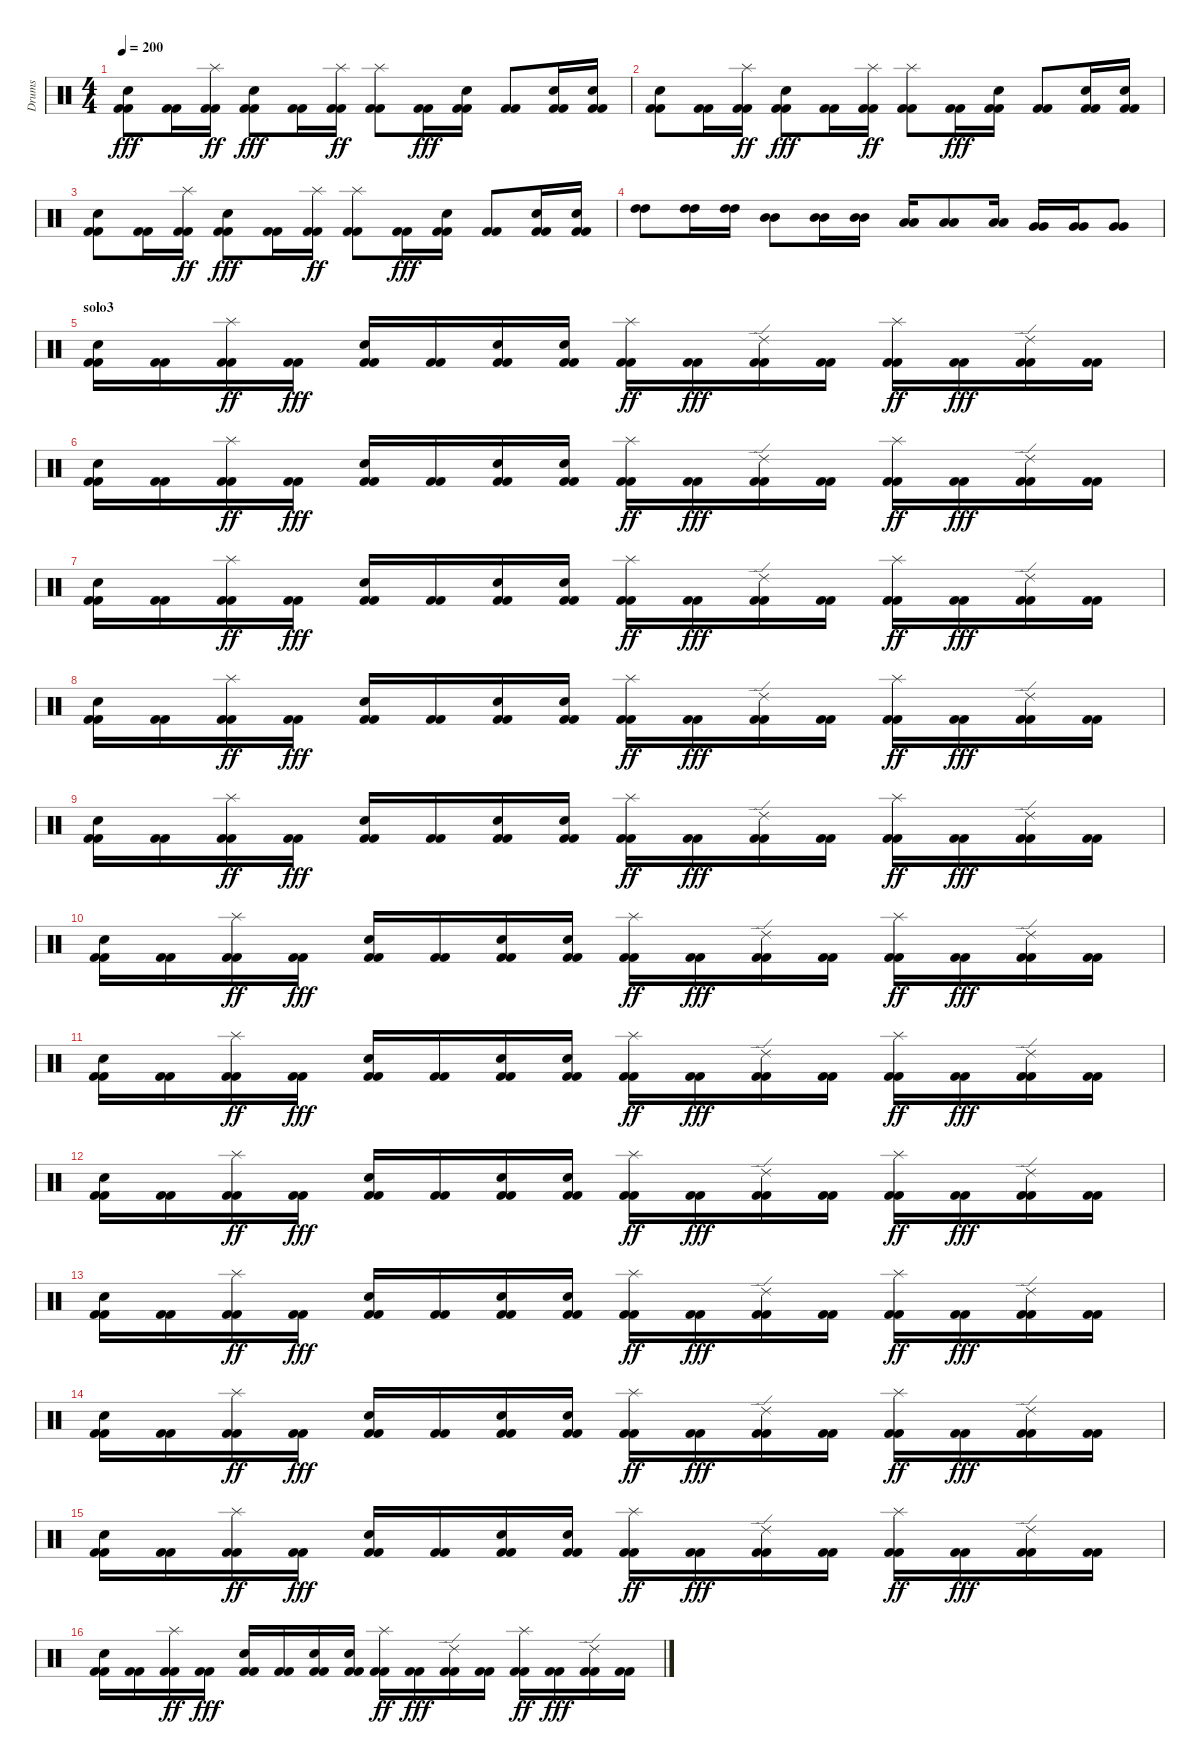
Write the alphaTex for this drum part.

\track ("Drums" "Drums") {instrument percussion}
\staff {score}
\articulation defaults
\ts (4 4)
\tempo 200
\clef neutral
\ks c
("Kick (hit) 2" "Kick (hit) 2" "Electric Snare (hit)").8{dy fff} ("Kick (hit) 2" "Kick (hit) 2").16 ("Kick (hit) 2" "Kick (hit) 2" "Splash (hit)").16{dy ff} ("Kick (hit) 2" "Kick (hit) 2" "Electric Snare (hit)").8{dy fff} ("Kick (hit) 2" "Kick (hit) 2").16 ("Kick (hit) 2" "Kick (hit) 2" "Splash (hit)").16{dy ff} ("Kick (hit) 2" "Kick (hit) 2" "Splash (hit)").8 ("Kick (hit) 2" "Kick (hit) 2").16{dy fff} ("Kick (hit) 2" "Kick (hit) 2" "Electric Snare (hit)").16 ("Kick (hit) 2" "Kick (hit) 2").8 ("Kick (hit) 2" "Kick (hit) 2" "Electric Snare (hit)").16 ("Kick (hit) 2" "Kick (hit) 2" "Electric Snare (hit)").16 |
("Kick (hit) 2" "Kick (hit) 2" "Electric Snare (hit)").8 ("Kick (hit) 2" "Kick (hit) 2").16 ("Kick (hit) 2" "Kick (hit) 2" "Splash (hit)").16{dy ff} ("Kick (hit) 2" "Kick (hit) 2" "Electric Snare (hit)").8{dy fff} ("Kick (hit) 2" "Kick (hit) 2").16 ("Kick (hit) 2" "Kick (hit) 2" "Splash (hit)").16{dy ff} ("Kick (hit) 2" "Kick (hit) 2" "Splash (hit)").8 ("Kick (hit) 2" "Kick (hit) 2").16{dy fff} ("Kick (hit) 2" "Kick (hit) 2" "Electric Snare (hit)").16 ("Kick (hit) 2" "Kick (hit) 2").8 ("Kick (hit) 2" "Kick (hit) 2" "Electric Snare (hit)").16 ("Kick (hit) 2" "Kick (hit) 2" "Electric Snare (hit)").16 |
("Kick (hit) 2" "Kick (hit) 2" "Electric Snare (hit)").8 ("Kick (hit) 2" "Kick (hit) 2").16 ("Kick (hit) 2" "Kick (hit) 2" "Splash (hit)").16{dy ff} ("Kick (hit) 2" "Kick (hit) 2" "Electric Snare (hit)").8{dy fff} ("Kick (hit) 2" "Kick (hit) 2").16 ("Kick (hit) 2" "Kick (hit) 2" "Splash (hit)").16{dy ff} ("Kick (hit) 2" "Kick (hit) 2" "Splash (hit)").8 ("Kick (hit) 2" "Kick (hit) 2").16{dy fff} ("Kick (hit) 2" "Kick (hit) 2" "Electric Snare (hit)").16 ("Kick (hit) 2" "Kick (hit) 2").8 ("Kick (hit) 2" "Kick (hit) 2" "Electric Snare (hit)").16 ("Kick (hit) 2" "Kick (hit) 2" "Electric Snare (hit)").16 |
("High Tom (hit)" "High Tom (hit)").8 ("High Tom (hit)" "High Tom (hit)").16 ("High Tom (hit)" "High Tom (hit)").16 ("Mid Tom (hit)" "Mid Tom (hit)").8 ("Mid Tom (hit)" "Mid Tom (hit)").16 ("Mid Tom (hit)" "Mid Tom (hit)").16 ("Low Tom (hit)" "Low Tom (hit)").16 ("Low Tom (hit)" "Low Tom (hit)").8 ("Low Tom (hit)" "Low Tom (hit)").16 ("Very Low Tom (hit)" "Very Low Tom (hit)").16 ("Very Low Tom (hit)" "Very Low Tom (hit)").16 ("Very Low Tom (hit)" "Very Low Tom (hit)").8 |
\section ("" "solo3")
("Kick (hit) 2" "Kick (hit) 2" "Electric Snare (hit)").16 ("Kick (hit) 2" "Kick (hit) 2").16 ("Kick (hit) 2" "Kick (hit) 2" "Splash (hit)").16{dy ff} ("Kick (hit) 2" "Kick (hit) 2").16{dy fff} ("Kick (hit) 2" "Kick (hit) 2" "Electric Snare (hit)").16 ("Kick (hit) 2" "Kick (hit) 2").16 ("Kick (hit) 2" "Kick (hit) 2" "Electric Snare (hit)").16 ("Kick (hit) 2" "Kick (hit) 2" "Electric Snare (hit)").16 ("Kick (hit) 2" "Kick (hit) 2" "Splash (hit)").16{dy ff} ("Kick (hit) 2" "Kick (hit) 2").16{dy fff} ("Kick (hit) 2" "Kick (hit) 2" "Ride (edge) 2").16 ("Kick (hit) 2" "Kick (hit) 2").16 ("Kick (hit) 2" "Kick (hit) 2" "Splash (hit)").16{dy ff} ("Kick (hit) 2" "Kick (hit) 2").16{dy fff} ("Kick (hit) 2" "Kick (hit) 2" "Ride (edge) 2").16 ("Kick (hit) 2" "Kick (hit) 2").16 |
("Kick (hit) 2" "Kick (hit) 2" "Electric Snare (hit)").16 ("Kick (hit) 2" "Kick (hit) 2").16 ("Kick (hit) 2" "Kick (hit) 2" "Splash (hit)").16{dy ff} ("Kick (hit) 2" "Kick (hit) 2").16{dy fff} ("Kick (hit) 2" "Kick (hit) 2" "Electric Snare (hit)").16 ("Kick (hit) 2" "Kick (hit) 2").16 ("Kick (hit) 2" "Kick (hit) 2" "Electric Snare (hit)").16 ("Kick (hit) 2" "Kick (hit) 2" "Electric Snare (hit)").16 ("Kick (hit) 2" "Kick (hit) 2" "Splash (hit)").16{dy ff} ("Kick (hit) 2" "Kick (hit) 2").16{dy fff} ("Kick (hit) 2" "Kick (hit) 2" "Ride (edge) 2").16 ("Kick (hit) 2" "Kick (hit) 2").16 ("Kick (hit) 2" "Kick (hit) 2" "Splash (hit)").16{dy ff} ("Kick (hit) 2" "Kick (hit) 2").16{dy fff} ("Kick (hit) 2" "Kick (hit) 2" "Ride (edge) 2").16 ("Kick (hit) 2" "Kick (hit) 2").16 |
("Kick (hit) 2" "Kick (hit) 2" "Electric Snare (hit)").16 ("Kick (hit) 2" "Kick (hit) 2").16 ("Kick (hit) 2" "Kick (hit) 2" "Splash (hit)").16{dy ff} ("Kick (hit) 2" "Kick (hit) 2").16{dy fff} ("Kick (hit) 2" "Kick (hit) 2" "Electric Snare (hit)").16 ("Kick (hit) 2" "Kick (hit) 2").16 ("Kick (hit) 2" "Kick (hit) 2" "Electric Snare (hit)").16 ("Kick (hit) 2" "Kick (hit) 2" "Electric Snare (hit)").16 ("Kick (hit) 2" "Kick (hit) 2" "Splash (hit)").16{dy ff} ("Kick (hit) 2" "Kick (hit) 2").16{dy fff} ("Kick (hit) 2" "Kick (hit) 2" "Ride (edge) 2").16 ("Kick (hit) 2" "Kick (hit) 2").16 ("Kick (hit) 2" "Kick (hit) 2" "Splash (hit)").16{dy ff} ("Kick (hit) 2" "Kick (hit) 2").16{dy fff} ("Kick (hit) 2" "Kick (hit) 2" "Ride (edge) 2").16 ("Kick (hit) 2" "Kick (hit) 2").16 |
("Kick (hit) 2" "Kick (hit) 2" "Electric Snare (hit)").16 ("Kick (hit) 2" "Kick (hit) 2").16 ("Kick (hit) 2" "Kick (hit) 2" "Splash (hit)").16{dy ff} ("Kick (hit) 2" "Kick (hit) 2").16{dy fff} ("Kick (hit) 2" "Kick (hit) 2" "Electric Snare (hit)").16 ("Kick (hit) 2" "Kick (hit) 2").16 ("Kick (hit) 2" "Kick (hit) 2" "Electric Snare (hit)").16 ("Kick (hit) 2" "Kick (hit) 2" "Electric Snare (hit)").16 ("Kick (hit) 2" "Kick (hit) 2" "Splash (hit)").16{dy ff} ("Kick (hit) 2" "Kick (hit) 2").16{dy fff} ("Kick (hit) 2" "Kick (hit) 2" "Ride (edge) 2").16 ("Kick (hit) 2" "Kick (hit) 2").16 ("Kick (hit) 2" "Kick (hit) 2" "Splash (hit)").16{dy ff} ("Kick (hit) 2" "Kick (hit) 2").16{dy fff} ("Kick (hit) 2" "Kick (hit) 2" "Ride (edge) 2").16 ("Kick (hit) 2" "Kick (hit) 2").16 |
("Kick (hit) 2" "Kick (hit) 2" "Electric Snare (hit)").16 ("Kick (hit) 2" "Kick (hit) 2").16 ("Kick (hit) 2" "Kick (hit) 2" "Splash (hit)").16{dy ff} ("Kick (hit) 2" "Kick (hit) 2").16{dy fff} ("Kick (hit) 2" "Kick (hit) 2" "Electric Snare (hit)").16 ("Kick (hit) 2" "Kick (hit) 2").16 ("Kick (hit) 2" "Kick (hit) 2" "Electric Snare (hit)").16 ("Kick (hit) 2" "Kick (hit) 2" "Electric Snare (hit)").16 ("Kick (hit) 2" "Kick (hit) 2" "Splash (hit)").16{dy ff} ("Kick (hit) 2" "Kick (hit) 2").16{dy fff} ("Kick (hit) 2" "Kick (hit) 2" "Ride (edge) 2").16 ("Kick (hit) 2" "Kick (hit) 2").16 ("Kick (hit) 2" "Kick (hit) 2" "Splash (hit)").16{dy ff} ("Kick (hit) 2" "Kick (hit) 2").16{dy fff} ("Kick (hit) 2" "Kick (hit) 2" "Ride (edge) 2").16 ("Kick (hit) 2" "Kick (hit) 2").16 |
("Kick (hit) 2" "Kick (hit) 2" "Electric Snare (hit)").16 ("Kick (hit) 2" "Kick (hit) 2").16 ("Kick (hit) 2" "Kick (hit) 2" "Splash (hit)").16{dy ff} ("Kick (hit) 2" "Kick (hit) 2").16{dy fff} ("Kick (hit) 2" "Kick (hit) 2" "Electric Snare (hit)").16 ("Kick (hit) 2" "Kick (hit) 2").16 ("Kick (hit) 2" "Kick (hit) 2" "Electric Snare (hit)").16 ("Kick (hit) 2" "Kick (hit) 2" "Electric Snare (hit)").16 ("Kick (hit) 2" "Kick (hit) 2" "Splash (hit)").16{dy ff} ("Kick (hit) 2" "Kick (hit) 2").16{dy fff} ("Kick (hit) 2" "Kick (hit) 2" "Ride (edge) 2").16 ("Kick (hit) 2" "Kick (hit) 2").16 ("Kick (hit) 2" "Kick (hit) 2" "Splash (hit)").16{dy ff} ("Kick (hit) 2" "Kick (hit) 2").16{dy fff} ("Kick (hit) 2" "Kick (hit) 2" "Ride (edge) 2").16 ("Kick (hit) 2" "Kick (hit) 2").16 |
("Kick (hit) 2" "Kick (hit) 2" "Electric Snare (hit)").16 ("Kick (hit) 2" "Kick (hit) 2").16 ("Kick (hit) 2" "Kick (hit) 2" "Splash (hit)").16{dy ff} ("Kick (hit) 2" "Kick (hit) 2").16{dy fff} ("Kick (hit) 2" "Kick (hit) 2" "Electric Snare (hit)").16 ("Kick (hit) 2" "Kick (hit) 2").16 ("Kick (hit) 2" "Kick (hit) 2" "Electric Snare (hit)").16 ("Kick (hit) 2" "Kick (hit) 2" "Electric Snare (hit)").16 ("Kick (hit) 2" "Kick (hit) 2" "Splash (hit)").16{dy ff} ("Kick (hit) 2" "Kick (hit) 2").16{dy fff} ("Kick (hit) 2" "Kick (hit) 2" "Ride (edge) 2").16 ("Kick (hit) 2" "Kick (hit) 2").16 ("Kick (hit) 2" "Kick (hit) 2" "Splash (hit)").16{dy ff} ("Kick (hit) 2" "Kick (hit) 2").16{dy fff} ("Kick (hit) 2" "Kick (hit) 2" "Ride (edge) 2").16 ("Kick (hit) 2" "Kick (hit) 2").16 |
("Kick (hit) 2" "Kick (hit) 2" "Electric Snare (hit)").16 ("Kick (hit) 2" "Kick (hit) 2").16 ("Kick (hit) 2" "Kick (hit) 2" "Splash (hit)").16{dy ff} ("Kick (hit) 2" "Kick (hit) 2").16{dy fff} ("Kick (hit) 2" "Kick (hit) 2" "Electric Snare (hit)").16 ("Kick (hit) 2" "Kick (hit) 2").16 ("Kick (hit) 2" "Kick (hit) 2" "Electric Snare (hit)").16 ("Kick (hit) 2" "Kick (hit) 2" "Electric Snare (hit)").16 ("Kick (hit) 2" "Kick (hit) 2" "Splash (hit)").16{dy ff} ("Kick (hit) 2" "Kick (hit) 2").16{dy fff} ("Kick (hit) 2" "Kick (hit) 2" "Ride (edge) 2").16 ("Kick (hit) 2" "Kick (hit) 2").16 ("Kick (hit) 2" "Kick (hit) 2" "Splash (hit)").16{dy ff} ("Kick (hit) 2" "Kick (hit) 2").16{dy fff} ("Kick (hit) 2" "Kick (hit) 2" "Ride (edge) 2").16 ("Kick (hit) 2" "Kick (hit) 2").16 |
("Kick (hit) 2" "Kick (hit) 2" "Electric Snare (hit)").16 ("Kick (hit) 2" "Kick (hit) 2").16 ("Kick (hit) 2" "Kick (hit) 2" "Splash (hit)").16{dy ff} ("Kick (hit) 2" "Kick (hit) 2").16{dy fff} ("Kick (hit) 2" "Kick (hit) 2" "Electric Snare (hit)").16 ("Kick (hit) 2" "Kick (hit) 2").16 ("Kick (hit) 2" "Kick (hit) 2" "Electric Snare (hit)").16 ("Kick (hit) 2" "Kick (hit) 2" "Electric Snare (hit)").16 ("Kick (hit) 2" "Kick (hit) 2" "Splash (hit)").16{dy ff} ("Kick (hit) 2" "Kick (hit) 2").16{dy fff} ("Kick (hit) 2" "Kick (hit) 2" "Ride (edge) 2").16 ("Kick (hit) 2" "Kick (hit) 2").16 ("Kick (hit) 2" "Kick (hit) 2" "Splash (hit)").16{dy ff} ("Kick (hit) 2" "Kick (hit) 2").16{dy fff} ("Kick (hit) 2" "Kick (hit) 2" "Ride (edge) 2").16 ("Kick (hit) 2" "Kick (hit) 2").16 |
("Kick (hit) 2" "Kick (hit) 2" "Electric Snare (hit)").16 ("Kick (hit) 2" "Kick (hit) 2").16 ("Kick (hit) 2" "Kick (hit) 2" "Splash (hit)").16{dy ff} ("Kick (hit) 2" "Kick (hit) 2").16{dy fff} ("Kick (hit) 2" "Kick (hit) 2" "Electric Snare (hit)").16 ("Kick (hit) 2" "Kick (hit) 2").16 ("Kick (hit) 2" "Kick (hit) 2" "Electric Snare (hit)").16 ("Kick (hit) 2" "Kick (hit) 2" "Electric Snare (hit)").16 ("Kick (hit) 2" "Kick (hit) 2" "Splash (hit)").16{dy ff} ("Kick (hit) 2" "Kick (hit) 2").16{dy fff} ("Kick (hit) 2" "Kick (hit) 2" "Ride (edge) 2").16 ("Kick (hit) 2" "Kick (hit) 2").16 ("Kick (hit) 2" "Kick (hit) 2" "Splash (hit)").16{dy ff} ("Kick (hit) 2" "Kick (hit) 2").16{dy fff} ("Kick (hit) 2" "Kick (hit) 2" "Ride (edge) 2").16 ("Kick (hit) 2" "Kick (hit) 2").16 |
("Kick (hit) 2" "Kick (hit) 2" "Electric Snare (hit)").16 ("Kick (hit) 2" "Kick (hit) 2").16 ("Kick (hit) 2" "Kick (hit) 2" "Splash (hit)").16{dy ff} ("Kick (hit) 2" "Kick (hit) 2").16{dy fff} ("Kick (hit) 2" "Kick (hit) 2" "Electric Snare (hit)").16 ("Kick (hit) 2" "Kick (hit) 2").16 ("Kick (hit) 2" "Kick (hit) 2" "Electric Snare (hit)").16 ("Kick (hit) 2" "Kick (hit) 2" "Electric Snare (hit)").16 ("Kick (hit) 2" "Kick (hit) 2" "Splash (hit)").16{dy ff} ("Kick (hit) 2" "Kick (hit) 2").16{dy fff} ("Kick (hit) 2" "Kick (hit) 2" "Ride (edge) 2").16 ("Kick (hit) 2" "Kick (hit) 2").16 ("Kick (hit) 2" "Kick (hit) 2" "Splash (hit)").16{dy ff} ("Kick (hit) 2" "Kick (hit) 2").16{dy fff} ("Kick (hit) 2" "Kick (hit) 2" "Ride (edge) 2").16 ("Kick (hit) 2" "Kick (hit) 2").16 |
("Kick (hit) 2" "Kick (hit) 2" "Electric Snare (hit)").16 ("Kick (hit) 2" "Kick (hit) 2").16 ("Kick (hit) 2" "Kick (hit) 2" "Splash (hit)").16{dy ff} ("Kick (hit) 2" "Kick (hit) 2").16{dy fff} ("Kick (hit) 2" "Kick (hit) 2" "Electric Snare (hit)").16 ("Kick (hit) 2" "Kick (hit) 2").16 ("Kick (hit) 2" "Kick (hit) 2" "Electric Snare (hit)").16 ("Kick (hit) 2" "Kick (hit) 2" "Electric Snare (hit)").16 ("Kick (hit) 2" "Kick (hit) 2" "Splash (hit)").16{dy ff} ("Kick (hit) 2" "Kick (hit) 2").16{dy fff} ("Kick (hit) 2" "Kick (hit) 2" "Ride (edge) 2").16 ("Kick (hit) 2" "Kick (hit) 2").16 ("Kick (hit) 2" "Kick (hit) 2" "Splash (hit)").16{dy ff} ("Kick (hit) 2" "Kick (hit) 2").16{dy fff} ("Kick (hit) 2" "Kick (hit) 2" "Ride (edge) 2").16 ("Kick (hit) 2" "Kick (hit) 2").16
